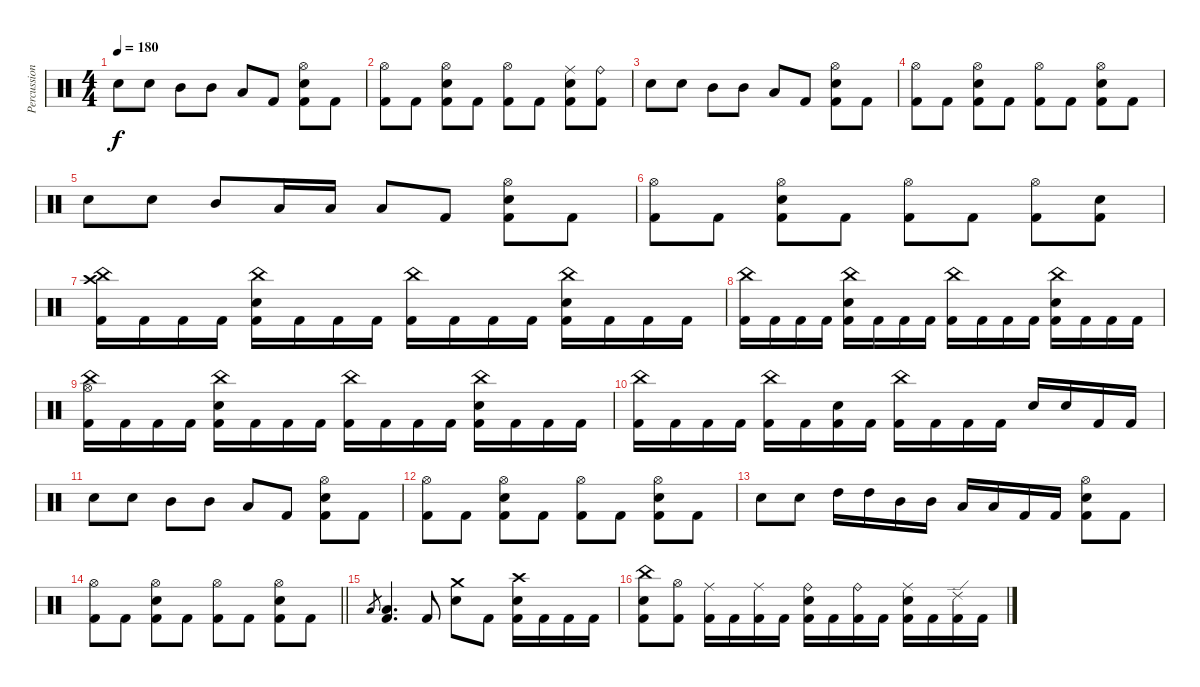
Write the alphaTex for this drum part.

\track ("Percussions" "Percussion") {instrument percussion}
\staff {score}
\articulation defaults
\ts (4 4)
\tempo 180
\clef neutral
\ks c "Electric Snare (hit)".8{dy f} "Electric Snare (hit)".8 "Mid Tom (hit)".8 "Mid Tom (hit)".8 "Low Tom (hit)".8 "Kick (hit) 2".8
("Hi-Hat (open)" "Electric Snare (hit)" "Kick (hit) 2").8 "Kick (hit) 2".8 |
("Hi-Hat (open)" "Kick (hit) 2").8 "Kick (hit) 2".8 ("Hi-Hat (open)" "Electric Snare (hit)" "Kick (hit) 2").8 "Kick (hit) 2".8 ("Hi-Hat (open)" "Kick (hit) 2").8 "Kick (hit) 2".8 ("Ride (middle)" "Electric Snare (hit)" "Kick (hit) 2").8 ("Ride (bell)" "Kick (hit) 2").8 |
"Electric Snare (hit)".8 "Electric Snare (hit)".8 "Mid Tom (hit)".8 "Mid Tom (hit)".8 "Low Tom (hit)".8 "Kick (hit) 2".8 ("Hi-Hat (open)" "Electric Snare (hit)" "Kick (hit) 2").8 "Kick (hit) 2".8 |
("Hi-Hat (open)" "Kick (hit) 2").8 "Kick (hit) 2".8 ("Hi-Hat (open)" "Electric Snare (hit)" "Kick (hit) 2").8 "Kick (hit) 2".8 ("Hi-Hat (open)" "Kick (hit) 2").8 "Kick (hit) 2".8 ("Hi-Hat (open)" "Electric Snare (hit)" "Kick (hit) 2").8 "Kick (hit) 2".8 |
"Electric Snare (hit)".8 "Electric Snare (hit)".8 "Mid Tom (hit)".8 "Low Tom (hit)".16 "Low Tom (hit)".16 "Low Tom (hit)".8 "Kick (hit) 2".8 ("Hi-Hat (open)" "Electric Snare (hit)" "Kick (hit) 2").8 "Kick (hit) 2".8 |
("Hi-Hat (open)" "Kick (hit) 2").8 "Kick (hit) 2".8 ("Hi-Hat (open)" "Electric Snare (hit)" "Kick (hit) 2").8 "Kick (hit) 2".8 ("Hi-Hat (open)" "Kick (hit) 2").8 "Kick (hit) 2".8 ("Hi-Hat (open)" "Kick (hit) 2").8 ("Electric Snare (hit)" "Kick (hit) 2").8 |
("China (hit)" "Crash high (hit)" "Kick (hit) 2").16 "Kick (hit) 2".16 "Kick (hit) 2".16 "Kick (hit) 2".16 ("China (hit)" "Electric Snare (hit)" "Kick (hit) 2").16 "Kick (hit) 2".16 "Kick (hit) 2".16 "Kick (hit) 2".16 ("China (hit)" "Kick (hit) 2").16 "Kick (hit) 2".16 "Kick (hit) 2".16 "Kick (hit) 2".16 ("China (hit)" "Electric Snare (hit)" "Kick (hit) 2").16 "Kick (hit) 2".16 "Kick (hit) 2".16 "Kick (hit) 2".16 |
("China (hit)" "Kick (hit) 2").16 "Kick (hit) 2".16 "Kick (hit) 2".16 "Kick (hit) 2".16 ("China (hit)" "Electric Snare (hit)" "Kick (hit) 2").16 "Kick (hit) 2".16 "Kick (hit) 2".16 "Kick (hit) 2".16 ("China (hit)" "Kick (hit) 2").16 "Kick (hit) 2".16 "Kick (hit) 2".16 "Kick (hit) 2".16 ("China (hit)" "Electric Snare (hit)" "Kick (hit) 2").16 "Kick (hit) 2".16 "Kick (hit) 2".16 "Kick (hit) 2".16 |
("China (hit)" "Hi-Hat (open)" "Kick (hit) 2").16 "Kick (hit) 2".16 "Kick (hit) 2".16 "Kick (hit) 2".16 ("China (hit)" "Electric Snare (hit)" "Kick (hit) 2").16 "Kick (hit) 2".16 "Kick (hit) 2".16 "Kick (hit) 2".16 ("China (hit)" "Kick (hit) 2").16 "Kick (hit) 2".16 "Kick (hit) 2".16 "Kick (hit) 2".16 ("China (hit)" "Electric Snare (hit)" "Kick (hit) 2").16 "Kick (hit) 2".16 "Kick (hit) 2".16 "Kick (hit) 2".16 |
("China (hit)" "Kick (hit) 2").16 "Kick (hit) 2".16 "Kick (hit) 2".16 "Kick (hit) 2".16 ("China (hit)" "Kick (hit) 2").16 "Kick (hit) 2".16 ("Electric Snare (hit)" "Kick (hit) 2").16 "Kick (hit) 2".16 ("China (hit)" "Kick (hit) 2").16 "Kick (hit) 2".16 "Kick (hit) 2".16 "Kick (hit) 2".16 "Electric Snare (hit)".16 "Electric Snare (hit)".16 "Kick (hit) 2".16 "Kick (hit) 2".16 |
"Electric Snare (hit)".8 "Electric Snare (hit)".8 "Mid Tom (hit)".8 "Mid Tom (hit)".8 "Low Tom (hit)".8 "Kick (hit) 2".8 ("Hi-Hat (open)" "Electric Snare (hit)" "Kick (hit) 2").8 "Kick (hit) 2".8 |
("Hi-Hat (open)" "Kick (hit) 2").8 "Kick (hit) 2".8 ("Hi-Hat (open)" "Electric Snare (hit)" "Kick (hit) 2").8 "Kick (hit) 2".8 ("Hi-Hat (open)" "Kick (hit) 2").8 "Kick (hit) 2".8 ("Hi-Hat (open)" "Electric Snare (hit)" "Kick (hit) 2").8 "Kick (hit) 2".8 |
"Electric Snare (hit)".8 "Electric Snare (hit)".8 "High Tom (hit)".16 "High Tom (hit)".16 "Mid Tom (hit)".16 "Mid Tom (hit)".16 "Low Tom (hit)".16 "Low Tom (hit)".16 "Kick (hit) 2".16 "Kick (hit) 2".16 ("Hi-Hat (open)" "Electric Snare (hit)" "Kick (hit) 2").8 "Kick (hit) 2".8 |
\barLineRight lightlight
("Hi-Hat (open)" "Kick (hit) 2").8 "Kick (hit) 2".8 ("Hi-Hat (open)" "Electric Snare (hit)" "Kick (hit) 2").8 "Kick (hit) 2".8 ("Hi-Hat (open)" "Kick (hit) 2").8 "Kick (hit) 2".8 ("Hi-Hat (open)" "Electric Snare (hit)" "Kick (hit) 2").8 "Kick (hit) 2".8 |
"Low Tom (hit)".8{gr} ("Low Tom (hit)" "Kick (hit) 2").4{d} "Kick (hit) 2".8 ("Crash medium (hit)" "Electric Snare (hit)").8 "Kick (hit) 2".8 ("Crash high (hit)" "Electric Snare (hit)" "Kick (hit) 2").16 "Kick (hit) 2".16 "Kick (hit) 2".16 "Kick (hit) 2".16 |
("China (hit)" "Electric Snare (hit)" "Kick (hit) 2").8 ("Hi-Hat (open)" "Kick (hit) 2").8 ("Ride (middle)" "Kick (hit) 2").16 "Kick (hit) 2".16 ("Ride (middle)" "Kick (hit) 2").16 "Kick (hit) 2".16 ("Ride (bell)" "Electric Snare (hit)" "Kick (hit) 2").16 "Kick (hit) 2".16 ("Ride (bell)" "Kick (hit) 2").16 "Kick (hit) 2".16 ("Ride (middle)" "Electric Snare (hit)" "Kick (hit) 2").16 "Kick (hit) 2".16 ("Ride (edge) 2" "Kick (hit) 2").16 "Kick (hit) 2".16
